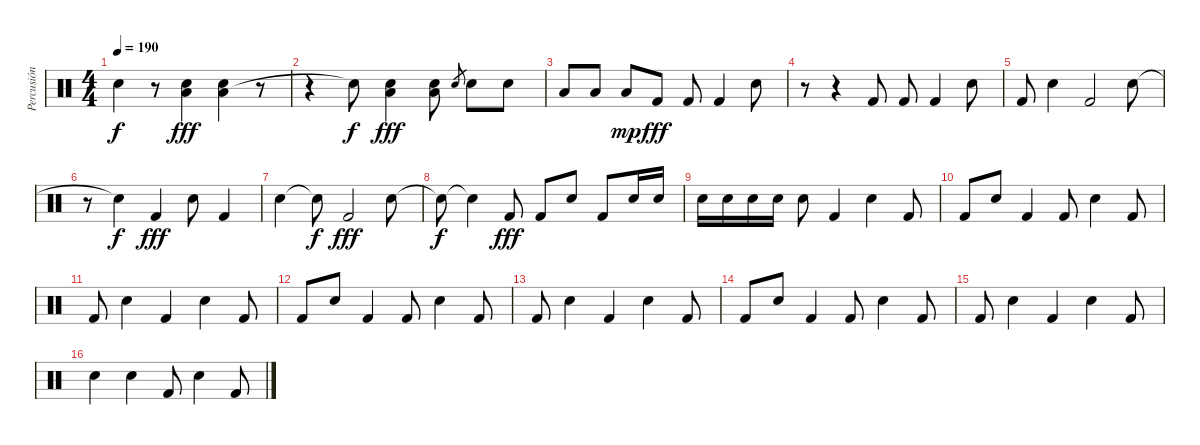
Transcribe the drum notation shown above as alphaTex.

\track ("Percusión" "Percusión") {instrument percussion}
\staff {score}
\articulation defaults
\ts (4 4)
\tempo 190
\clef neutral
\ks c "Snare (hit)"{t}.4{dy f}
r.8 ("Low Floor Tom (hit)" "Snare (hit) 2").4{dy fff} ("Low Floor Tom (hit)" "Snare (hit) 2").4 r.8 |
r.4 "Snare (hit)"{t}.8{dy f} ("Low Floor Tom (hit)" "Snare (hit) 2").4{dy fff} ("Low Floor Tom (hit)" "Snare (hit) 2").8 "Snare (hit) 2".8{gr} "Snare (hit) 2".8 "Snare (hit) 2".8 |
"Low Tom (hit)".8 "Low Tom (hit)".8 "Low Tom (hit)".8{dy mp} "Kick (hit) 2".8{dy fff} "Kick (hit) 2".8 "Kick (hit) 2".4 "Snare (hit) 2".8 |
r.8 r.4 "Kick (hit) 2".8 "Kick (hit) 2".8 "Kick (hit) 2".4 "Snare (hit) 2".8 |
"Kick (hit) 2".8 "Snare (hit) 2".4 "Kick (hit) 2".2 "Snare (hit) 2".8 |
r.8 "Snare (hit)"{t}.4{dy f} "Kick (hit) 2".4{dy fff} "Snare (hit) 2".8 "Kick (hit) 2".4 |
"Snare (hit) 2".4 "Snare (hit)"{t}.8{dy f} "Kick (hit) 2".2{dy fff} "Snare (hit) 2".8 |
"Snare (hit) 2"{t}.8{dy f} "Snare (hit)"{t}.4 "Kick (hit) 2".8{dy fff} "Kick (hit) 2".8 "Snare (hit) 2".8 "Kick (hit) 2".8 "Snare (hit) 2".16 "Snare (hit) 2".16 |
"Snare (hit) 2".16 "Snare (hit) 2".16 "Snare (hit) 2".16 "Snare (hit) 2".16 "Snare (hit) 2".8 "Kick (hit) 2".4 "Snare (hit) 2".4 "Kick (hit) 2".8 |
"Kick (hit) 2".8 "Snare (hit) 2".8 "Kick (hit) 2".4 "Kick (hit) 2".8 "Snare (hit) 2".4 "Kick (hit) 2".8 |
"Kick (hit) 2".8 "Snare (hit) 2".4 "Kick (hit) 2".4 "Snare (hit) 2".4 "Kick (hit) 2".8 |
"Kick (hit) 2".8 "Snare (hit) 2".8 "Kick (hit) 2".4 "Kick (hit) 2".8 "Snare (hit) 2".4 "Kick (hit) 2".8 |
"Kick (hit) 2".8 "Snare (hit) 2".4 "Kick (hit) 2".4 "Snare (hit) 2".4 "Kick (hit) 2".8 |
"Kick (hit) 2".8 "Snare (hit) 2".8 "Kick (hit) 2".4 "Kick (hit) 2".8 "Snare (hit) 2".4 "Kick (hit) 2".8 |
"Kick (hit) 2".8 "Snare (hit) 2".4 "Kick (hit) 2".4 "Snare (hit) 2".4 "Kick (hit) 2".8 |
"Snare (hit) 2".4 "Snare (hit) 2".4 "Kick (hit) 2".8 "Snare (hit) 2".4 "Kick (hit) 2".8
